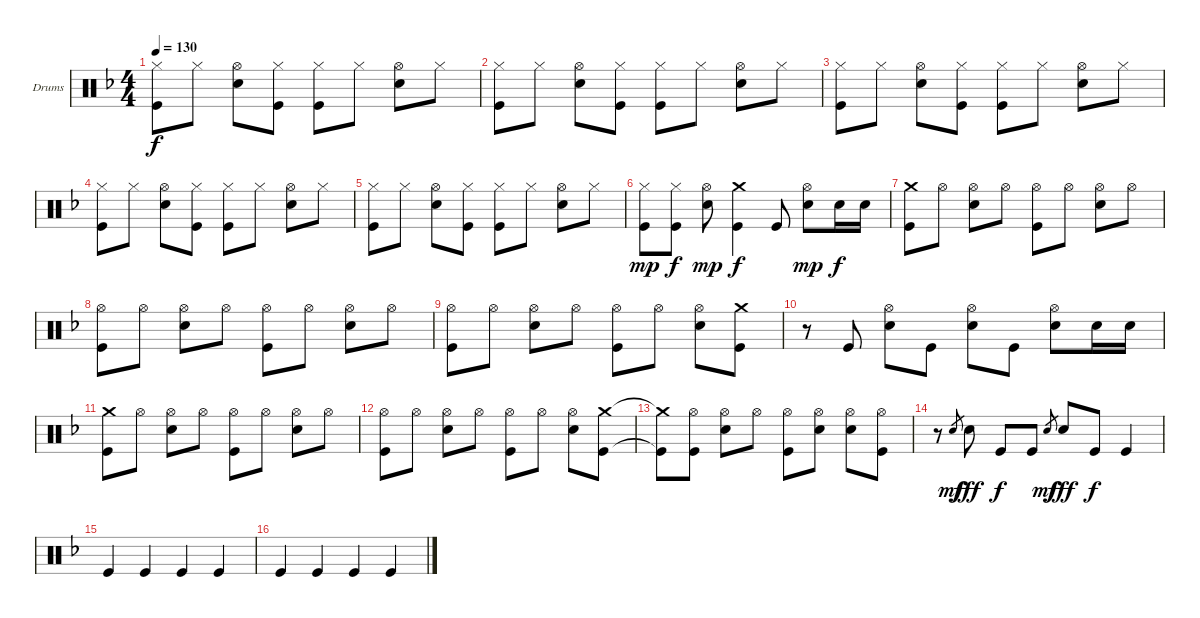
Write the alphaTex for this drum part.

\bracketExtendMode groupsimilarinstruments
\firstSystemTrackNameOrientation horizontal
\otherSystemsTrackNameOrientation horizontal
\track ("Александр Манякин" "Drums") {instrument percussion}
\staff {score}
\articulation defaults
\ts (4 4)
\tempo 130
\clef neutral
\ks f
("Hi-Hat (closed)" "Kick (hit)").8{dy f} "Hi-Hat (closed)".8 ("Hi-Hat (open)" "Snare (hit) 2").8 ("Hi-Hat (closed)" "Kick (hit)").8 ("Hi-Hat (closed)" "Kick (hit)").8 "Hi-Hat (closed)".8 ("Hi-Hat (open)" "Snare (hit) 2").8 "Hi-Hat (closed)".8 |
("Hi-Hat (closed)" "Kick (hit)").8 "Hi-Hat (closed)".8 ("Hi-Hat (open)" "Snare (hit) 2").8 ("Hi-Hat (closed)" "Kick (hit)").8 ("Hi-Hat (closed)" "Kick (hit)").8 "Hi-Hat (closed)".8 ("Hi-Hat (open)" "Snare (hit) 2").8 "Hi-Hat (closed)".8 |
("Hi-Hat (closed)" "Kick (hit)").8 "Hi-Hat (closed)".8 ("Hi-Hat (open)" "Snare (hit) 2").8 ("Hi-Hat (closed)" "Kick (hit)").8 ("Hi-Hat (closed)" "Kick (hit)").8 "Hi-Hat (closed)".8 ("Hi-Hat (open)" "Snare (hit) 2").8 "Hi-Hat (closed)".8 |
("Hi-Hat (closed)" "Kick (hit)").8 "Hi-Hat (closed)".8 ("Hi-Hat (open)" "Snare (hit) 2").8 ("Hi-Hat (closed)" "Kick (hit)").8 ("Hi-Hat (closed)" "Kick (hit)").8 "Hi-Hat (closed)".8 ("Hi-Hat (open)" "Snare (hit) 2").8 "Hi-Hat (closed)".8 |
("Hi-Hat (closed)" "Kick (hit)").8 "Hi-Hat (closed)".8 ("Hi-Hat (open)" "Snare (hit) 2").8 ("Hi-Hat (closed)" "Kick (hit)").8 ("Hi-Hat (closed)" "Kick (hit)").8 "Hi-Hat (closed)".8 ("Hi-Hat (open)" "Snare (hit) 2").8 "Hi-Hat (closed)".8 |
("Hi-Hat (closed)" "Kick (hit)").8{dy mp} ("Hi-Hat (closed)" "Kick (hit)").8{dy f} ("Hi-Hat (open)" "Snare (hit) 2").8{dy mp} ("Crash medium (hit)" "Kick (hit)").4{dy f} "Kick (hit)".8 ("Hi-Hat (open)" "Snare (hit) 2").8{dy mp} "Snare (hit) 2".16{dy f} "Snare (hit) 2".16 |
("Crash medium (hit)" "Kick (hit)").8 "Hi-Hat (open)".8 ("Hi-Hat (open)" "Snare (hit) 2").8 "Hi-Hat (open)".8 ("Hi-Hat (open)" "Kick (hit)").8 "Hi-Hat (open)".8 ("Hi-Hat (open)" "Snare (hit) 2").8 "Hi-Hat (open)".8 |
("Hi-Hat (open)" "Kick (hit)").8 "Hi-Hat (open)".8 ("Hi-Hat (open)" "Snare (hit) 2").8 "Hi-Hat (open)".8 ("Hi-Hat (open)" "Kick (hit)").8 "Hi-Hat (open)".8 ("Hi-Hat (open)" "Snare (hit) 2").8 "Hi-Hat (open)".8 |
("Hi-Hat (open)" "Kick (hit)").8 "Hi-Hat (open)".8 ("Hi-Hat (open)" "Snare (hit) 2").8 "Hi-Hat (open)".8 ("Hi-Hat (open)" "Kick (hit)").8 "Hi-Hat (open)".8 ("Hi-Hat (open)" "Snare (hit) 2").8 ("Crash medium (hit)" "Kick (hit)").8 |
r.8 "Kick (hit)".8 ("Hi-Hat (open)" "Snare (hit) 2").8 "Kick (hit)".8 ("Hi-Hat (open)" "Snare (hit) 2").8 "Kick (hit)".8 ("Hi-Hat (open)" "Snare (hit) 2").8 "Snare (hit) 2".16 "Snare (hit) 2".16 |
("Crash medium (hit)" "Kick (hit)").8 "Hi-Hat (open)".8 ("Hi-Hat (open)" "Snare (hit) 2").8 "Hi-Hat (open)".8 ("Hi-Hat (open)" "Kick (hit)").8 "Hi-Hat (open)".8 ("Hi-Hat (open)" "Snare (hit) 2").8 "Hi-Hat (open)".8 |
("Hi-Hat (open)" "Kick (hit)").8 "Hi-Hat (open)".8 ("Hi-Hat (open)" "Snare (hit) 2").8 "Hi-Hat (open)".8 ("Hi-Hat (open)" "Kick (hit)").8 "Hi-Hat (open)".8 ("Hi-Hat (open)" "Snare (hit) 2").8 ("Crash medium (hit)" "Kick (hit)").8 |
("Crash medium (hit)"{t} "Kick (hit)"{t}).8 ("Hi-Hat (open)" "Kick (hit)").8 ("Hi-Hat (open)" "Snare (hit) 2").8 "Hi-Hat (open)".8 ("Hi-Hat (open)" "Kick (hit)").8 ("Hi-Hat (open)" "Snare (hit) 2").8 ("Hi-Hat (open)" "Snare (hit) 2").8 ("Hi-Hat (open)" "Kick (hit)").8 |
r.8 "Snare (hit) 2".8{gr dy mf} "Snare (hit) 2".8{dy fff} "Kick (hit)".8{dy f} "Kick (hit)".8 "Snare (hit) 2".8{gr dy mf} "Snare (hit) 2".8{dy fff} "Kick (hit)".8{dy f} "Kick (hit)".4 |
"Kick (hit)".4 "Kick (hit)".4 "Kick (hit)".4 "Kick (hit)".4 |
"Kick (hit)".4 "Kick (hit)".4 "Kick (hit)".4 "Kick (hit)".4
